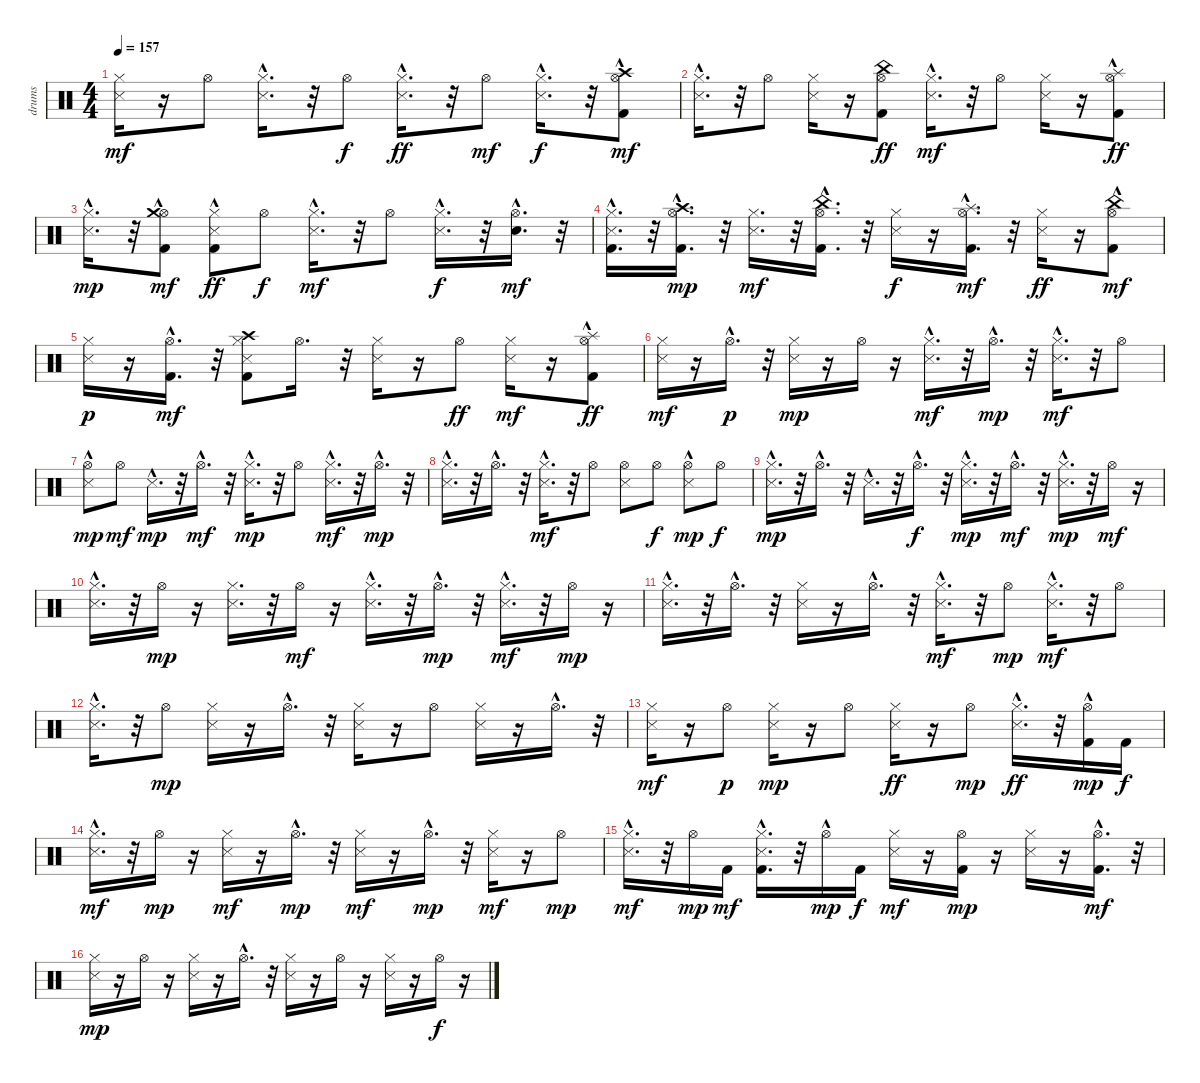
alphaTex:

\track ("drums   " "drums   ") {instrument percussion}
\staff {score}
\articulation defaults
\ts (4 4)
\tempo 157
\clef neutral
\ks c
("Snare (side stick) 3" "Hi-Hat (closed)").16{dy mf} r.16 "Hi-Hat (open)".8 ("Snare (side stick) 3" "Hi-Hat (closed)"{hac}).16{d} r.32 "Hi-Hat (open)".8{dy f} ("Snare (side stick) 3"{hac} "Hi-Hat (closed)"{hac}).16{d dy ff} r.32 "Hi-Hat (open)".8{dy mf} ("Snare (side stick) 3"{hac} "Hi-Hat (closed)"{hac}).16{d dy f} r.32 ("Kick (hit) 2"{hac} "Hi-Hat (open)" "Crash high (hit)"{hac}).8{dy mf} |
("Snare (side stick) 3"{hac} "Hi-Hat (closed)"{hac}).16{d} r.32 "Hi-Hat (open)".8 ("Snare (side stick) 3" "Hi-Hat (closed)").16 r.16 ("Kick (hit) 2" "Hi-Hat (open)" "China (hit)").8{dy ff} ("Snare (side stick) 3"{hac} "Hi-Hat (closed)"{hac}).16{d dy mf} r.32 "Hi-Hat (open)".8 ("Snare (side stick) 3" "Hi-Hat (closed)").16 r.16 ("Kick (hit) 2"{hac} "Hi-Hat (open)" "Splash (hit)").8{dy ff} |
("Snare (side stick) 3" "Hi-Hat (closed)"{hac}).16{d dy mp} r.32 ("Kick (hit) 2"{hac} "Hi-Hat (open)"{hac} "Crash medium (hit)"{hac}).8{dy mf} ("Kick (hit) 2" "Snare (side stick) 3"{hac} "Hi-Hat (closed)"{hac}).8{dy ff} "Hi-Hat (open)".8{dy f} ("Snare (side stick) 3"{hac} "Hi-Hat (closed)"{hac}).16{d dy mf} r.32 "Hi-Hat (open)".8 ("Snare (side stick) 3" "Hi-Hat (closed)"{hac}).16{d dy f} r.32 ("Electric Snare (hit)"{hac} "Hi-Hat (open)").16{d dy mf} r.32 |
("Kick (hit) 2"{hac} "Snare (side stick) 3" "Hi-Hat (closed)").16{d} r.32 ("Kick (hit) 2"{hac} "Hi-Hat (open)"{hac} "Crash high (hit)"{hac}).16{d dy mp} r.32 ("Snare (side stick) 3" "Hi-Hat (closed)").16{d dy mf} r.32 ("Kick (hit) 2"{hac} "Hi-Hat (open)" "China (hit)"{hac}).16{d} r.32 ("Snare (side stick) 3" "Hi-Hat (closed)").16{dy f} r.16 ("Kick (hit) 2"{hac} "Hi-Hat (open)" "Splash (hit)"{hac}).16{d dy mf} r.32 ("Snare (side stick) 3" "Hi-Hat (closed)").16{dy ff} r.16 ("Kick (hit) 2"{hac} "Hi-Hat (open)"{hac} "China (hit)").8{dy mf} |
("Snare (side stick) 3" "Hi-Hat (closed)").16{dy p} r.16 ("Kick (hit) 2"{hac} "Hi-Hat (open)"{hac}).16{d dy mf} r.32 ("Kick (hit) 2" "Snare (side stick) 3" "Hi-Hat (closed)" "Crash high (hit)").8 "Hi-Hat (open)".16{d} r.32 ("Snare (side stick) 3" "Hi-Hat (closed)").16 r.16 "Hi-Hat (open)".8{dy ff} ("Snare (side stick) 3" "Hi-Hat (closed)").16{dy mf} r.16 ("Kick (hit) 2" "Hi-Hat (open)"{hac} "Splash (hit)").8{dy ff} |
("Snare (side stick) 3" "Hi-Hat (closed)").16{dy mf} r.16 "Hi-Hat (open)"{hac}.16{d dy p} r.32 ("Snare (side stick) 3" "Hi-Hat (closed)").16{dy mp} r.16 "Hi-Hat (open)".16 r.16 ("Snare (side stick) 3"{hac} "Hi-Hat (closed)").16{d dy mf} r.32 "Hi-Hat (open)"{hac}.16{d dy mp} r.32 ("Snare (side stick) 3"{hac} "Hi-Hat (closed)").16{d dy mf} r.32 "Hi-Hat (open)".8 |
("Snare (side stick) 3"{hac} "Hi-Hat (open)").8{dy mp} "Hi-Hat (open)".8{dy mf} "Snare (side stick) 3"{hac}.16{d dy mp} r.32 "Hi-Hat (open)"{hac}.16{d dy mf} r.32 ("Snare (side stick) 3"{hac} "Hi-Hat (closed)").16{d dy mp} r.32 "Hi-Hat (open)".8 ("Snare (side stick) 3"{hac} "Hi-Hat (closed)").16{d dy mf} r.32 "Hi-Hat (open)"{hac}.16{d dy mp} r.32 |
("Snare (side stick) 3"{hac} "Hi-Hat (closed)").16{d} r.32 "Hi-Hat (open)"{hac}.16{d} r.32 ("Snare (side stick) 3"{hac} "Hi-Hat (closed)"{hac}).16{d dy mf} r.32 "Hi-Hat (open)".8 ("Snare (side stick) 3" "Hi-Hat (open)").8 "Hi-Hat (open)".8{dy f} ("Snare (side stick) 3"{hac} "Hi-Hat (open)").8{dy mp} "Hi-Hat (open)".8{dy f} |
("Snare (side stick) 3"{hac} "Hi-Hat (closed)").16{d dy mp} r.32 "Hi-Hat (open)"{hac}.16{d} r.32 "Snare (side stick) 3"{hac}.16{d} r.32 "Hi-Hat (open)"{hac}.16{d dy f} r.32 ("Snare (side stick) 3"{hac} "Hi-Hat (closed)").16{d dy mp} r.32 "Hi-Hat (open)"{hac}.16{d dy mf} r.32 ("Snare (side stick) 3"{hac} "Hi-Hat (closed)").16{d dy mp} r.32 "Hi-Hat (open)".16{dy mf} r.16 |
("Snare (side stick) 3"{hac} "Hi-Hat (closed)").16{d} r.32 "Hi-Hat (open)".16{dy mp} r.16 ("Snare (side stick) 3" "Hi-Hat (closed)").16{d} r.32 "Hi-Hat (open)".16{dy mf} r.16 ("Snare (side stick) 3"{hac} "Hi-Hat (closed)").16{d} r.32 "Hi-Hat (open)"{hac}.16{d dy mp} r.32 ("Snare (side stick) 3"{hac} "Hi-Hat (closed)").16{d dy mf} r.32 "Hi-Hat (open)".16{dy mp} r.16 |
("Snare (side stick) 3"{hac} "Hi-Hat (closed)").16{d} r.32 "Hi-Hat (open)"{hac}.16{d} r.32 ("Snare (side stick) 3" "Hi-Hat (closed)").16 r.16 "Hi-Hat (open)"{hac}.16{d} r.32 ("Snare (side stick) 3"{hac} "Hi-Hat (closed)").16{d dy mf} r.32 "Hi-Hat (open)".8{dy mp} ("Snare (side stick) 3"{hac} "Hi-Hat (closed)").16{d dy mf} r.32 "Hi-Hat (open)".8 |
("Snare (side stick) 3"{hac} "Hi-Hat (closed)").16{d} r.32 "Hi-Hat (open)".8{dy mp} ("Snare (side stick) 3" "Hi-Hat (closed)").16 r.16 "Hi-Hat (open)"{hac}.16{d} r.32 ("Snare (side stick) 3" "Hi-Hat (closed)").16 r.16 "Hi-Hat (open)".8 ("Snare (side stick) 3" "Hi-Hat (closed)").16 r.16 "Hi-Hat (open)"{hac}.16{d} r.32 |
("Snare (side stick) 3" "Hi-Hat (closed)").16{dy mf} r.16 "Hi-Hat (open)".8{dy p} ("Snare (side stick) 3" "Hi-Hat (closed)").16{dy mp} r.16 "Hi-Hat (open)".8 ("Snare (side stick) 3" "Hi-Hat (closed)").16{dy ff} r.16 "Hi-Hat (open)".8{dy mp} ("Snare (side stick) 3" "Hi-Hat (closed)"{hac}).16{d dy ff} r.32 ("Kick (hit) 2" "Hi-Hat (open)"{hac}).16{dy mp} "Kick (hit) 2".16{dy f} |
("Snare (side stick) 3"{hac} "Hi-Hat (closed)").16{d dy mf} r.32 "Hi-Hat (open)".16{dy mp} r.16 ("Snare (side stick) 3" "Hi-Hat (closed)").16{dy mf} r.16 "Hi-Hat (open)"{hac}.16{d dy mp} r.32 ("Snare (side stick) 3" "Hi-Hat (closed)").16{dy mf} r.16 "Hi-Hat (open)"{hac}.16{d dy mp} r.32 ("Snare (side stick) 3" "Hi-Hat (closed)").16{dy mf} r.16 "Hi-Hat (open)".8{dy mp} |
("Snare (side stick) 3"{hac} "Hi-Hat (closed)").16{d dy mf} r.32 "Hi-Hat (open)".16{dy mp} "Kick (hit) 2".16{dy mf} ("Kick (hit) 2" "Snare (side stick) 3" "Hi-Hat (closed)"{hac}).16{d} r.32 "Hi-Hat (open)"{hac}.16{dy mp} "Kick (hit) 2".16{dy f} ("Snare (side stick) 3" "Hi-Hat (closed)").16{dy mf} r.16 ("Kick (hit) 2" "Hi-Hat (open)").16{dy mp} r.16 ("Snare (side stick) 3" "Hi-Hat (closed)").16 r.16 ("Kick (hit) 2" "Hi-Hat (open)"{hac}).16{d dy mf} r.32 |
("Snare (side stick) 3" "Hi-Hat (closed)").16{dy mp} r.16 "Hi-Hat (open)".16 r.16 ("Snare (side stick) 3" "Hi-Hat (closed)").16 r.16 "Hi-Hat (open)"{hac}.16{d} r.32 ("Snare (side stick) 3" "Hi-Hat (closed)").16 r.16 "Hi-Hat (open)".16 r.16 ("Snare (side stick) 3" "Hi-Hat (closed)").16 r.16 "Hi-Hat (open)".16{dy f} r.16
